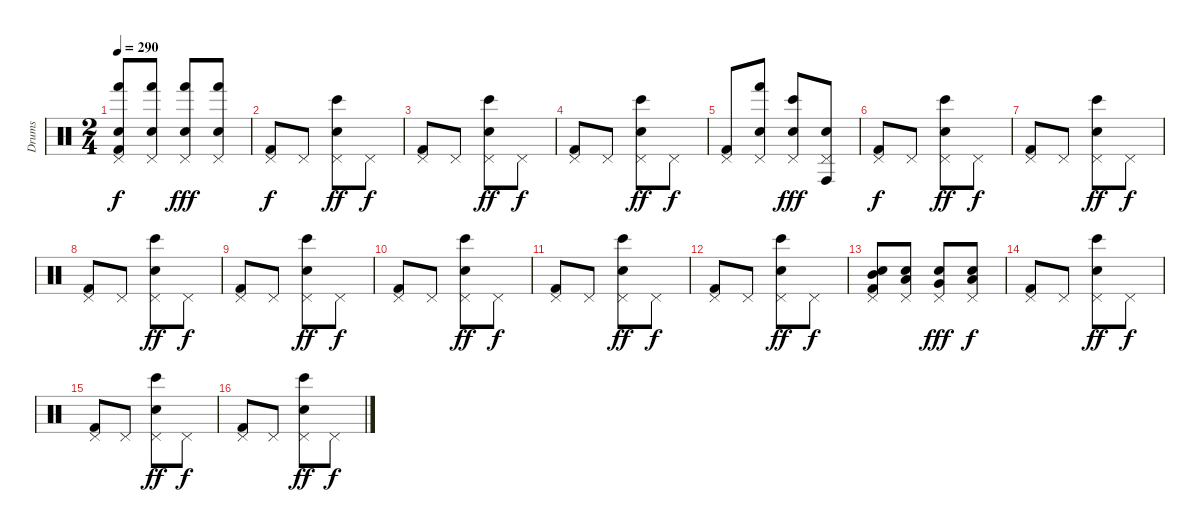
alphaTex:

\track ("Drums" "Drums") {instrument percussion}
\staff {score}
\articulation defaults
\ts (2 4)
\tempo 290
\clef neutral
\ks c
("Pedal Hi-Hat (hit)" "Hand (hit)" "Electric Snare (hit)" "Kick (hit) 2").8{dy f} ("Pedal Hi-Hat (hit)" "Hand (hit)" "Electric Snare (hit)").8 ("Pedal Hi-Hat (hit)" "Hand (hit)" "Electric Snare (hit)").8{dy fff} ("Pedal Hi-Hat (hit)" "Hand (hit)" "Electric Snare (hit)").8 |
("Pedal Hi-Hat (hit)" "Kick (hit) 2").8{dy f} "Pedal Hi-Hat (hit)".8 ("Pedal Hi-Hat (hit)" "Bongo High (hit)" "Electric Snare (hit)").8{dy ff} "Pedal Hi-Hat (hit)".8{dy f} |
("Pedal Hi-Hat (hit)" "Kick (hit) 2").8 "Pedal Hi-Hat (hit)".8 ("Pedal Hi-Hat (hit)" "Bongo High (hit)" "Electric Snare (hit)").8{dy ff} "Pedal Hi-Hat (hit)".8{dy f} |
("Pedal Hi-Hat (hit)" "Kick (hit) 2").8 "Pedal Hi-Hat (hit)".8 ("Pedal Hi-Hat (hit)" "Bongo High (hit)" "Electric Snare (hit)").8{dy ff} "Pedal Hi-Hat (hit)".8{dy f} |
("Pedal Hi-Hat (hit)" "Kick (hit) 2").8 ("Pedal Hi-Hat (hit)" "Hand (hit)" "Electric Snare (hit)").8 ("Pedal Hi-Hat (hit)" "Bongo High (hit)" "Electric Snare (hit)").8{dy fff} ("Pedal Hi-Hat (hit)" "Conga high (hit)" "Electric Snare (hit)").8 |
("Pedal Hi-Hat (hit)" "Kick (hit) 2").8{dy f} "Pedal Hi-Hat (hit)".8 ("Pedal Hi-Hat (hit)" "Bongo High (hit)" "Electric Snare (hit)").8{dy ff} "Pedal Hi-Hat (hit)".8{dy f} |
("Pedal Hi-Hat (hit)" "Kick (hit) 2").8 "Pedal Hi-Hat (hit)".8 ("Pedal Hi-Hat (hit)" "Bongo High (hit)" "Electric Snare (hit)").8{dy ff} "Pedal Hi-Hat (hit)".8{dy f} |
("Pedal Hi-Hat (hit)" "Kick (hit) 2").8 "Pedal Hi-Hat (hit)".8 ("Pedal Hi-Hat (hit)" "Bongo High (hit)" "Electric Snare (hit)").8{dy ff} "Pedal Hi-Hat (hit)".8{dy f} |
("Pedal Hi-Hat (hit)" "Kick (hit) 2").8 "Pedal Hi-Hat (hit)".8 ("Pedal Hi-Hat (hit)" "Bongo High (hit)" "Electric Snare (hit)").8{dy ff} "Pedal Hi-Hat (hit)".8{dy f} |
("Pedal Hi-Hat (hit)" "Kick (hit) 2").8 "Pedal Hi-Hat (hit)".8 ("Pedal Hi-Hat (hit)" "Bongo High (hit)" "Electric Snare (hit)").8{dy ff} "Pedal Hi-Hat (hit)".8{dy f} |
("Pedal Hi-Hat (hit)" "Kick (hit) 2").8 "Pedal Hi-Hat (hit)".8 ("Pedal Hi-Hat (hit)" "Bongo High (hit)" "Electric Snare (hit)").8{dy ff} "Pedal Hi-Hat (hit)".8{dy f} |
("Pedal Hi-Hat (hit)" "Kick (hit) 2").8 "Pedal Hi-Hat (hit)".8 ("Pedal Hi-Hat (hit)" "Bongo High (hit)" "Electric Snare (hit)").8{dy ff} "Pedal Hi-Hat (hit)".8{dy f} |
("Pedal Hi-Hat (hit)" "Mid Tom (hit)" "Electric Snare (hit)" "Kick (hit) 2").8 ("Pedal Hi-Hat (hit)" "Low Tom (hit)" "Electric Snare (hit)").8 ("Pedal Hi-Hat (hit)" "Very Low Tom (hit)" "Electric Snare (hit)").8{dy fff} ("Pedal Hi-Hat (hit)" "Low Floor Tom (hit)" "Electric Snare (hit)").8{dy f} |
("Pedal Hi-Hat (hit)" "Kick (hit) 2").8 "Pedal Hi-Hat (hit)".8 ("Pedal Hi-Hat (hit)" "Bongo High (hit)" "Electric Snare (hit)").8{dy ff} "Pedal Hi-Hat (hit)".8{dy f} |
("Pedal Hi-Hat (hit)" "Kick (hit) 2").8 "Pedal Hi-Hat (hit)".8 ("Pedal Hi-Hat (hit)" "Bongo High (hit)" "Electric Snare (hit)").8{dy ff} "Pedal Hi-Hat (hit)".8{dy f} |
("Pedal Hi-Hat (hit)" "Kick (hit) 2").8 "Pedal Hi-Hat (hit)".8 ("Pedal Hi-Hat (hit)" "Bongo High (hit)" "Electric Snare (hit)").8{dy ff} "Pedal Hi-Hat (hit)".8{dy f}
